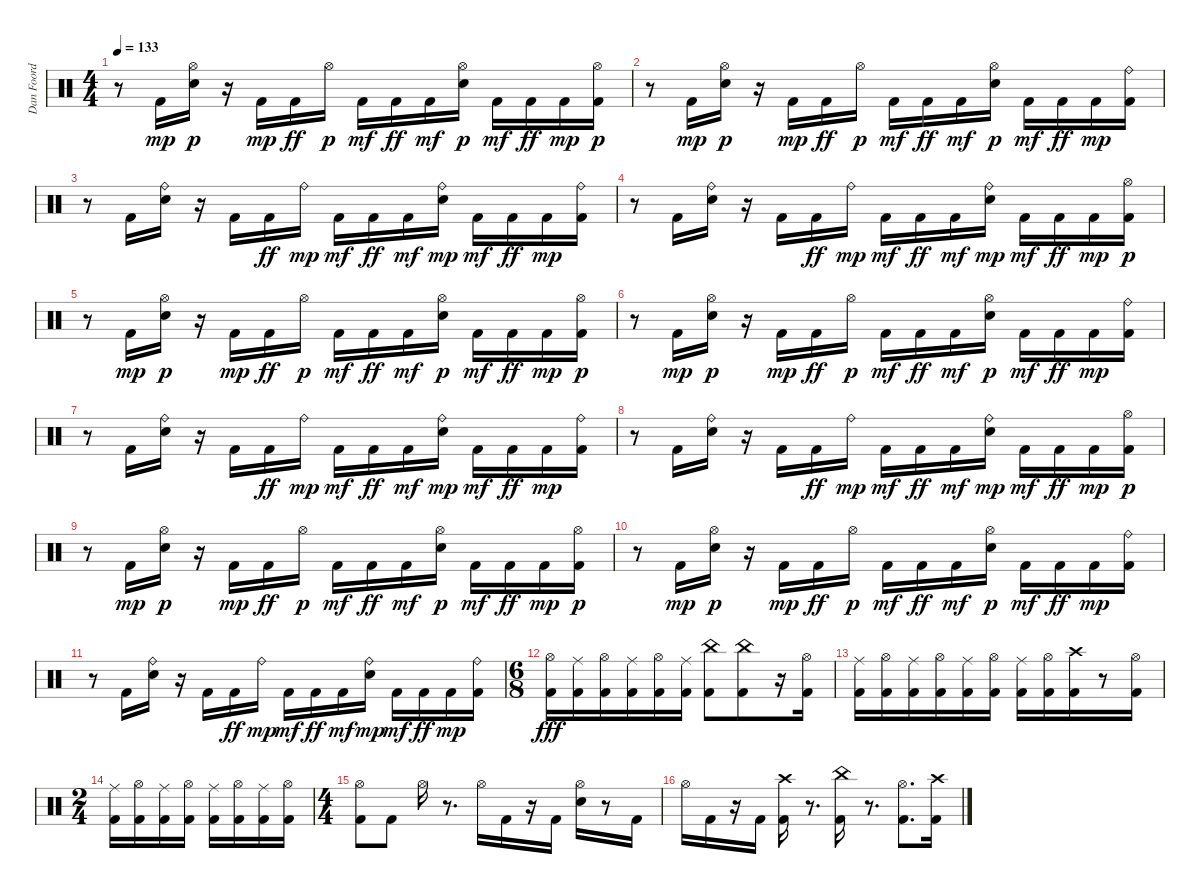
\track ("Dan Foord 2" "Dan Foord ") {instrument percussion}
\staff {score}
\articulation defaults
\ts (4 4)
\tempo 133
\clef neutral
\ks c
r.8{dy p} "Kick (hit) 2".16{dy mp} ("Snare (hit) 2" "Hi-Hat (open)").16{dy p} r.16 "Kick (hit) 2".16{dy mp} "Kick (hit) 2".16{dy ff} "Hi-Hat (open)".16{dy p} "Kick (hit) 2".16{dy mf} "Kick (hit) 2".16{dy ff} "Kick (hit) 2".16{dy mf} ("Snare (hit) 2" "Hi-Hat (open)").16{dy p} "Kick (hit) 2".16{dy mf} "Kick (hit) 2".16{dy ff} "Kick (hit) 2".16{dy mp} ("Kick (hit) 2" "Hi-Hat (open)").16{dy p} |
r.8 "Kick (hit) 2".16{dy mp} ("Snare (hit) 2" "Hi-Hat (open)").16{dy p} r.16 "Kick (hit) 2".16{dy mp} "Kick (hit) 2".16{dy ff} "Hi-Hat (open)".16{dy p} "Kick (hit) 2".16{dy mf} "Kick (hit) 2".16{dy ff} "Kick (hit) 2".16{dy mf} ("Snare (hit) 2" "Hi-Hat (open)").16{dy p} "Kick (hit) 2".16{dy mf} "Kick (hit) 2".16{dy ff} "Kick (hit) 2".16{dy mp} ("Kick (hit) 2" "Ride (bell)").16 |
r.8 "Kick (hit) 2".16 ("Snare (hit) 2" "Ride (bell)").16 r.16 "Kick (hit) 2".16 "Kick (hit) 2".16{dy ff} "Ride (bell)".16{dy mp} "Kick (hit) 2".16{dy mf} "Kick (hit) 2".16{dy ff} "Kick (hit) 2".16{dy mf} ("Snare (hit) 2" "Ride (bell)").16{dy mp} "Kick (hit) 2".16{dy mf} "Kick (hit) 2".16{dy ff} "Kick (hit) 2".16{dy mp} ("Kick (hit) 2" "Ride (bell)").16 |
r.8 "Kick (hit) 2".16 ("Snare (hit) 2" "Ride (bell)").16 r.16 "Kick (hit) 2".16 "Kick (hit) 2".16{dy ff} "Ride (bell)".16{dy mp} "Kick (hit) 2".16{dy mf} "Kick (hit) 2".16{dy ff} "Kick (hit) 2".16{dy mf} ("Snare (hit) 2" "Ride (bell)").16{dy mp} "Kick (hit) 2".16{dy mf} "Kick (hit) 2".16{dy ff} "Kick (hit) 2".16{dy mp} ("Kick (hit) 2" "Hi-Hat (open)").16{dy p} |
r.8 "Kick (hit) 2".16{dy mp} ("Snare (hit) 2" "Hi-Hat (open)").16{dy p} r.16 "Kick (hit) 2".16{dy mp} "Kick (hit) 2".16{dy ff} "Hi-Hat (open)".16{dy p} "Kick (hit) 2".16{dy mf} "Kick (hit) 2".16{dy ff} "Kick (hit) 2".16{dy mf} ("Snare (hit) 2" "Hi-Hat (open)").16{dy p} "Kick (hit) 2".16{dy mf} "Kick (hit) 2".16{dy ff} "Kick (hit) 2".16{dy mp} ("Kick (hit) 2" "Hi-Hat (open)").16{dy p} |
r.8 "Kick (hit) 2".16{dy mp} ("Snare (hit) 2" "Hi-Hat (open)").16{dy p} r.16 "Kick (hit) 2".16{dy mp} "Kick (hit) 2".16{dy ff} "Hi-Hat (open)".16{dy p} "Kick (hit) 2".16{dy mf} "Kick (hit) 2".16{dy ff} "Kick (hit) 2".16{dy mf} ("Snare (hit) 2" "Hi-Hat (open)").16{dy p} "Kick (hit) 2".16{dy mf} "Kick (hit) 2".16{dy ff} "Kick (hit) 2".16{dy mp} ("Kick (hit) 2" "Ride (bell)").16 |
r.8 "Kick (hit) 2".16 ("Snare (hit) 2" "Ride (bell)").16 r.16 "Kick (hit) 2".16 "Kick (hit) 2".16{dy ff} "Ride (bell)".16{dy mp} "Kick (hit) 2".16{dy mf} "Kick (hit) 2".16{dy ff} "Kick (hit) 2".16{dy mf} ("Snare (hit) 2" "Ride (bell)").16{dy mp} "Kick (hit) 2".16{dy mf} "Kick (hit) 2".16{dy ff} "Kick (hit) 2".16{dy mp} ("Kick (hit) 2" "Ride (bell)").16 |
r.8 "Kick (hit) 2".16 ("Snare (hit) 2" "Ride (bell)").16 r.16 "Kick (hit) 2".16 "Kick (hit) 2".16{dy ff} "Ride (bell)".16{dy mp} "Kick (hit) 2".16{dy mf} "Kick (hit) 2".16{dy ff} "Kick (hit) 2".16{dy mf} ("Snare (hit) 2" "Ride (bell)").16{dy mp} "Kick (hit) 2".16{dy mf} "Kick (hit) 2".16{dy ff} "Kick (hit) 2".16{dy mp} ("Kick (hit) 2" "Hi-Hat (open)").16{dy p} |
r.8 "Kick (hit) 2".16{dy mp} ("Snare (hit) 2" "Hi-Hat (open)").16{dy p} r.16 "Kick (hit) 2".16{dy mp} "Kick (hit) 2".16{dy ff} "Hi-Hat (open)".16{dy p} "Kick (hit) 2".16{dy mf} "Kick (hit) 2".16{dy ff} "Kick (hit) 2".16{dy mf} ("Snare (hit) 2" "Hi-Hat (open)").16{dy p} "Kick (hit) 2".16{dy mf} "Kick (hit) 2".16{dy ff} "Kick (hit) 2".16{dy mp} ("Kick (hit) 2" "Hi-Hat (open)").16{dy p} |
r.8 "Kick (hit) 2".16{dy mp} ("Snare (hit) 2" "Hi-Hat (open)").16{dy p} r.16 "Kick (hit) 2".16{dy mp} "Kick (hit) 2".16{dy ff} "Hi-Hat (open)".16{dy p} "Kick (hit) 2".16{dy mf} "Kick (hit) 2".16{dy ff} "Kick (hit) 2".16{dy mf} ("Snare (hit) 2" "Hi-Hat (open)").16{dy p} "Kick (hit) 2".16{dy mf} "Kick (hit) 2".16{dy ff} "Kick (hit) 2".16{dy mp} ("Kick (hit) 2" "Ride (bell)").16 |
r.8 "Kick (hit) 2".16 ("Snare (hit) 2" "Ride (bell)").16 r.16 "Kick (hit) 2".16 "Kick (hit) 2".16{dy ff} "Ride (bell)".16{dy mp} "Kick (hit) 2".16{dy mf} "Kick (hit) 2".16{dy ff} "Kick (hit) 2".16{dy mf} ("Snare (hit) 2" "Ride (bell)").16{dy mp} "Kick (hit) 2".16{dy mf} "Kick (hit) 2".16{dy ff} "Kick (hit) 2".16{dy mp} ("Kick (hit) 2" "Ride (bell)").16 |
\ts (6 8)
("Kick (hit) 2" "Hi-Hat (open)").16{dy fff} ("Kick (hit) 2" "Ride (middle)").16 ("Kick (hit) 2" "Hi-Hat (open)").16 ("Kick (hit) 2" "Ride (middle)").16 ("Kick (hit) 2" "Hi-Hat (open)").16 ("Kick (hit) 2" "Ride (middle)").16 ("Kick (hit) 2" "China (hit)").8 ("Kick (hit) 2" "China (hit)").8 r.16 ("Kick (hit) 2" "Hi-Hat (open)").16 |
("Kick (hit) 2" "Ride (middle)").16 ("Kick (hit) 2" "Hi-Hat (open)").16 ("Kick (hit) 2" "Ride (middle)").16 ("Kick (hit) 2" "Hi-Hat (open)").16 ("Kick (hit) 2" "Ride (middle)").16 ("Kick (hit) 2" "Hi-Hat (open)").16 ("Kick (hit) 2" "Ride (middle)").16 ("Kick (hit) 2" "Hi-Hat (open)").16 ("Kick (hit) 2" "Crash high (hit)").16 r.8 ("Kick (hit) 2" "Hi-Hat (open)").16 |
\ts (2 4)
("Kick (hit) 2" "Ride (middle)").16 ("Kick (hit) 2" "Hi-Hat (open)").16 ("Kick (hit) 2" "Ride (middle)").16 ("Kick (hit) 2" "Hi-Hat (open)").16 ("Kick (hit) 2" "Ride (middle)").16 ("Kick (hit) 2" "Hi-Hat (open)").16 ("Kick (hit) 2" "Ride (middle)").16 ("Kick (hit) 2" "Hi-Hat (open)").16 |
\ts (4 4)
("Kick (hit) 2" "Hi-Hat (open)").8 "Kick (hit) 2".8 "Hi-Hat (open)".16 r.8{d} "Hi-Hat (open)".16 "Kick (hit) 2".16 r.16 "Kick (hit) 2".16 ("Snare (hit) 2" "Hi-Hat (open)").16 r.8 "Kick (hit) 2".16 |
"Hi-Hat (open)".16 "Kick (hit) 2".16 r.16 "Kick (hit) 2".16 ("Kick (hit) 2" "Crash high (hit)").16 r.8{d} ("Kick (hit) 2" "China (hit)").16 r.8{d} ("Kick (hit) 2" "Hi-Hat (open)").8{d} ("Kick (hit) 2" "Crash high (hit)").16
